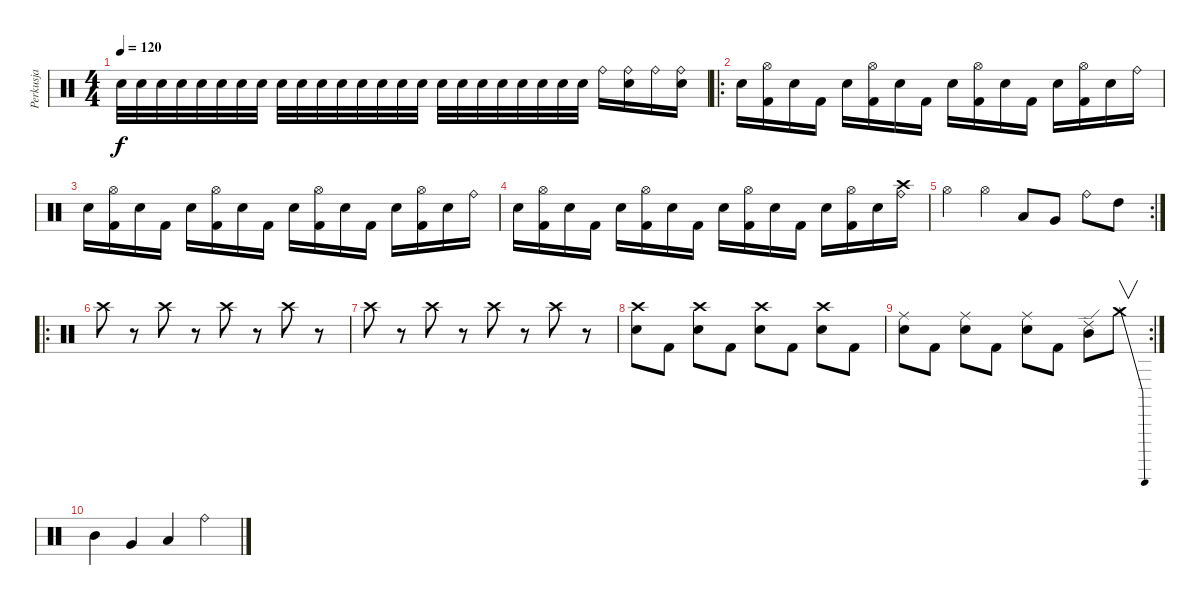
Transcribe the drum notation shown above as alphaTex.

\track ("Perkusja" "Perkusja") {instrument percussion}
\staff {score}
\articulation defaults
\ts (4 4)
\tempo 120
\clef neutral
\ks c "Snare (hit) 2".32{dy f} "Snare (hit) 2".32 "Snare (hit) 2".32 "Snare (hit) 2".32 "Snare (hit) 2".32 "Snare (hit) 2".32 "Snare (hit) 2".32 "Snare (hit) 2".32 "Snare (hit) 2".32 "Snare (hit) 2".32 "Snare (hit) 2".32 "Snare (hit) 2".32 "Snare (hit) 2".32 "Snare (hit) 2".32 "Snare (hit) 2".32 "Snare (hit) 2".32 "Snare (hit) 2".32 "Snare (hit) 2".32 "Snare (hit) 2".32 "Snare (hit) 2".32 "Snare (hit) 2".32 "Snare (hit) 2".32 "Snare (hit) 2".32 "Snare (hit) 2".32 "Ride (bell)".16
("Snare (hit) 2" "Ride (bell)").16 "Ride (bell)".16 ("Snare (hit) 2" "Ride (bell)").16 |
\ro "Snare (hit) 2".16
("Hi-Hat (open)" "Kick (hit) 2").16 "Snare (hit) 2".16 "Kick (hit) 2".16 "Snare (hit) 2".16 ("Hi-Hat (open)" "Kick (hit) 2").16 "Snare (hit) 2".16 "Kick (hit) 2".16 "Snare (hit) 2".16 ("Hi-Hat (open)" "Kick (hit) 2").16 "Snare (hit) 2".16 "Kick (hit) 2".16 "Snare (hit) 2".16 ("Hi-Hat (open)" "Kick (hit) 2").16 "Snare (hit) 2".16 "Ride (bell)".16 |
"Snare (hit) 2".16 ("Hi-Hat (open)" "Kick (hit) 2").16 "Snare (hit) 2".16 "Kick (hit) 2".16 "Snare (hit) 2".16 ("Hi-Hat (open)" "Kick (hit) 2").16 "Snare (hit) 2".16 "Kick (hit) 2".16 "Snare (hit) 2".16 ("Hi-Hat (open)" "Kick (hit) 2").16 "Snare (hit) 2".16 "Kick (hit) 2".16 "Snare (hit) 2".16 ("Hi-Hat (open)" "Kick (hit) 2").16 "Snare (hit) 2".16 "Ride (bell)".16 |
"Snare (hit) 2".16 ("Hi-Hat (open)" "Kick (hit) 2").16 "Snare (hit) 2".16 "Kick (hit) 2".16 "Snare (hit) 2".16 ("Hi-Hat (open)" "Kick (hit) 2").16 "Snare (hit) 2".16 "Kick (hit) 2".16 "Snare (hit) 2".16 ("Hi-Hat (open)" "Kick (hit) 2").16 "Snare (hit) 2".16 "Kick (hit) 2".16 "Snare (hit) 2".16 ("Hi-Hat (open)" "Kick (hit) 2").16 "Snare (hit) 2".16 ("Crash high (hit)" "Ride (bell)").16 |
\rc 2 "Hi-Hat (open)".4 "Hi-Hat (open)".4 "Low Floor Tom (hit)".8 "Very Low Tom (hit)".8 "Ride (bell)".8 "High Tom (hit)".8
|
\ro "Crash high (hit)".8
r.8 "Crash high (hit)".8 r.8 "Crash high (hit)".8 r.8 "Crash high (hit)".8 r.8 |
"Crash high (hit)".8 r.8 "Crash high (hit)".8 r.8 "Crash high (hit)".8 r.8 "Crash high (hit)".8 r.8 |
("Crash high (hit)" "Electric Snare (hit)").8 "Kick (hit) 2".8 ("Crash high (hit)" "Electric Snare (hit)").8 "Kick (hit) 2".8 ("Crash high (hit)" "Electric Snare (hit)").8 "Kick (hit) 2".8 ("Crash high (hit)" "Electric Snare (hit)").8 "Kick (hit) 2".8 |
\rc 2
("Ride (middle)" "Electric Snare (hit)").8 "Kick (hit) 2".8 ("Ride (middle)" "Electric Snare (hit)").8 "Kick (hit) 2".8 ("Ride (middle)" "Electric Snare (hit)").8 "Kick (hit) 2".8 ("Ride (edge) 2" "Mid Tom (hit)").8 "Crash medium (hit)"{be (bend 0 0 60 4)}.8{v} |
"Mid Tom (hit)".4 "Very Low Tom (hit)".4 "Low Floor Tom (hit)".4 "Ride (bell)".4
